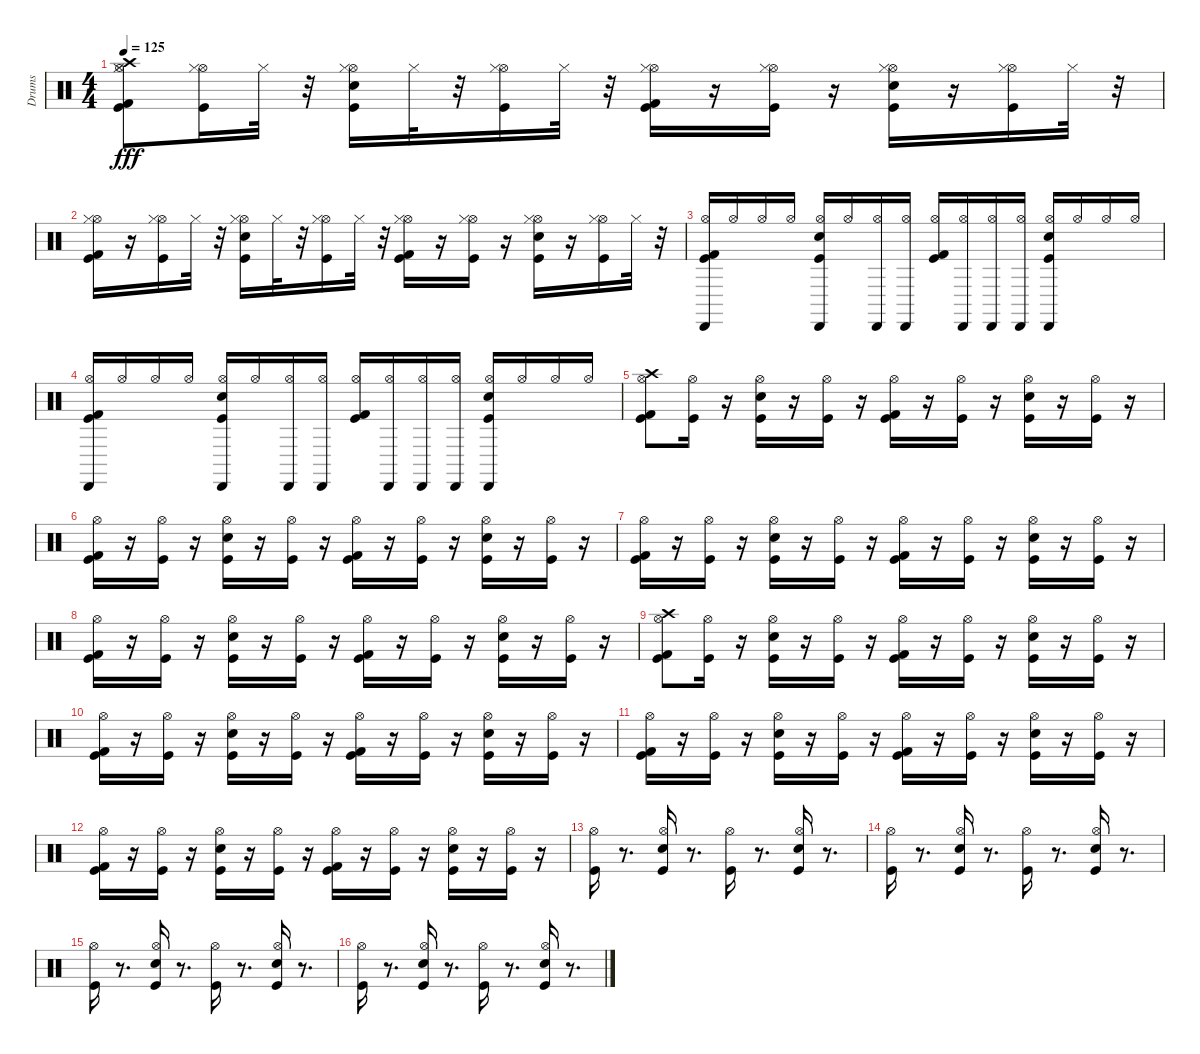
\track ("Drums" "Drums") {instrument percussion}
\staff {score}
\articulation defaults
\ts (4 4)
\tempo 125
\clef neutral
\ks c
("Kick (hit)" "Kick (hit) 2" "Hi-Hat (open)" "Crash high (hit)" "Hi-Hat (closed)").8{dy fff} ("Kick (hit)" "Hi-Hat (open)" "Hi-Hat (closed)").16 "Hi-Hat (closed)".32 r.32 ("Kick (hit)" "Snare (hit) 2" "Hi-Hat (open)" "Hi-Hat (closed)").16 "Hi-Hat (closed)".32 r.32 ("Kick (hit)" "Hi-Hat (open)" "Hi-Hat (closed)").16 "Hi-Hat (closed)".32 r.32 ("Kick (hit)" "Kick (hit) 2" "Hi-Hat (open)" "Hi-Hat (closed)").16 r.16 ("Kick (hit)" "Hi-Hat (open)" "Hi-Hat (closed)").16 r.16 ("Kick (hit)" "Snare (hit) 2" "Hi-Hat (open)" "Hi-Hat (closed)").16 r.16 ("Kick (hit)" "Hi-Hat (open)" "Hi-Hat (closed)").16 "Hi-Hat (closed)".32 r.32 |
("Kick (hit)" "Kick (hit) 2" "Hi-Hat (open)" "Hi-Hat (closed)").16 r.16 ("Kick (hit)" "Hi-Hat (open)" "Hi-Hat (closed)").16 "Hi-Hat (closed)".32 r.32 ("Kick (hit)" "Snare (hit) 2" "Hi-Hat (open)" "Hi-Hat (closed)").16 "Hi-Hat (closed)".32 r.32 ("Kick (hit)" "Hi-Hat (open)" "Hi-Hat (closed)").16 "Hi-Hat (closed)".32 r.32 ("Kick (hit)" "Kick (hit) 2" "Hi-Hat (open)" "Hi-Hat (closed)").16 r.16 ("Kick (hit)" "Hi-Hat (open)" "Hi-Hat (closed)").16 r.16 ("Kick (hit)" "Snare (hit) 2" "Hi-Hat (open)" "Hi-Hat (closed)").16 r.16 ("Kick (hit)" "Hi-Hat (open)" "Hi-Hat (closed)").16 "Hi-Hat (closed)".32 r.32 |
("Kick (hit) 2" "Kick (hit)" "Cabasa (hit)" "Hi-Hat (open)").16 "Hi-Hat (open)".16 "Hi-Hat (open)".16 "Hi-Hat (open)".16 ("Kick (hit)" "Cabasa (hit)" "Snare (hit) 2" "Hi-Hat (open)").16 "Hi-Hat (open)".16 ("Cabasa (hit)" "Hi-Hat (open)").16 ("Cabasa (hit)" "Hi-Hat (open)").16 ("Kick (hit) 2" "Kick (hit)" "Hi-Hat (open)").16 ("Cabasa (hit)" "Hi-Hat (open)").16 ("Cabasa (hit)" "Hi-Hat (open)").16 ("Cabasa (hit)" "Hi-Hat (open)").16 ("Kick (hit)" "Cabasa (hit)" "Snare (hit) 2" "Hi-Hat (open)").16 "Hi-Hat (open)".16 "Hi-Hat (open)".16 "Hi-Hat (open)".16 |
("Kick (hit) 2" "Kick (hit)" "Cabasa (hit)" "Hi-Hat (open)").16 "Hi-Hat (open)".16 "Hi-Hat (open)".16 "Hi-Hat (open)".16 ("Kick (hit)" "Cabasa (hit)" "Snare (hit) 2" "Hi-Hat (open)").16 "Hi-Hat (open)".16 ("Cabasa (hit)" "Hi-Hat (open)").16 ("Cabasa (hit)" "Hi-Hat (open)").16 ("Kick (hit) 2" "Kick (hit)" "Hi-Hat (open)").16 ("Cabasa (hit)" "Hi-Hat (open)").16 ("Cabasa (hit)" "Hi-Hat (open)").16 ("Cabasa (hit)" "Hi-Hat (open)").16 ("Kick (hit)" "Cabasa (hit)" "Snare (hit) 2" "Hi-Hat (open)").16 "Hi-Hat (open)".16 "Hi-Hat (open)".16 "Hi-Hat (open)".16 |
("Kick (hit) 2" "Kick (hit)" "Hi-Hat (open)" "Crash high (hit)").8 ("Kick (hit)" "Hi-Hat (open)").16 r.16 ("Kick (hit)" "Snare (hit) 2" "Hi-Hat (open)").16 r.16 ("Kick (hit)" "Hi-Hat (open)").16 r.16 ("Kick (hit) 2" "Kick (hit)" "Hi-Hat (open)").16 r.16 ("Kick (hit)" "Hi-Hat (open)").16 r.16 ("Kick (hit)" "Snare (hit) 2" "Hi-Hat (open)").16 r.16 ("Kick (hit)" "Hi-Hat (open)").16 r.16 |
("Kick (hit) 2" "Kick (hit)" "Hi-Hat (open)").16 r.16 ("Kick (hit)" "Hi-Hat (open)").16 r.16 ("Kick (hit)" "Snare (hit) 2" "Hi-Hat (open)").16 r.16 ("Kick (hit)" "Hi-Hat (open)").16 r.16 ("Kick (hit) 2" "Kick (hit)" "Hi-Hat (open)").16 r.16 ("Kick (hit)" "Hi-Hat (open)").16 r.16 ("Kick (hit)" "Snare (hit) 2" "Hi-Hat (open)").16 r.16 ("Kick (hit)" "Hi-Hat (open)").16 r.16 |
("Kick (hit) 2" "Kick (hit)" "Hi-Hat (open)").16 r.16 ("Kick (hit)" "Hi-Hat (open)").16 r.16 ("Kick (hit)" "Snare (hit) 2" "Hi-Hat (open)").16 r.16 ("Kick (hit)" "Hi-Hat (open)").16 r.16 ("Kick (hit) 2" "Kick (hit)" "Hi-Hat (open)").16 r.16 ("Kick (hit)" "Hi-Hat (open)").16 r.16 ("Kick (hit)" "Snare (hit) 2" "Hi-Hat (open)").16 r.16 ("Kick (hit)" "Hi-Hat (open)").16 r.16 |
("Kick (hit) 2" "Kick (hit)" "Hi-Hat (open)").16 r.16 ("Kick (hit)" "Hi-Hat (open)").16 r.16 ("Kick (hit)" "Snare (hit) 2" "Hi-Hat (open)").16 r.16 ("Kick (hit)" "Hi-Hat (open)").16 r.16 ("Kick (hit) 2" "Kick (hit)" "Hi-Hat (open)").16 r.16 ("Kick (hit)" "Hi-Hat (open)").16 r.16 ("Kick (hit)" "Snare (hit) 2" "Hi-Hat (open)").16 r.16 ("Kick (hit)" "Hi-Hat (open)").16 r.16 |
("Kick (hit) 2" "Kick (hit)" "Hi-Hat (open)" "Crash high (hit)").8 ("Kick (hit)" "Hi-Hat (open)").16 r.16 ("Kick (hit)" "Snare (hit) 2" "Hi-Hat (open)").16 r.16 ("Kick (hit)" "Hi-Hat (open)").16 r.16 ("Kick (hit) 2" "Kick (hit)" "Hi-Hat (open)").16 r.16 ("Kick (hit)" "Hi-Hat (open)").16 r.16 ("Kick (hit)" "Snare (hit) 2" "Hi-Hat (open)").16 r.16 ("Kick (hit)" "Hi-Hat (open)").16 r.16 |
("Kick (hit) 2" "Kick (hit)" "Hi-Hat (open)").16 r.16 ("Kick (hit)" "Hi-Hat (open)").16 r.16 ("Kick (hit)" "Snare (hit) 2" "Hi-Hat (open)").16 r.16 ("Kick (hit)" "Hi-Hat (open)").16 r.16 ("Kick (hit) 2" "Kick (hit)" "Hi-Hat (open)").16 r.16 ("Kick (hit)" "Hi-Hat (open)").16 r.16 ("Kick (hit)" "Snare (hit) 2" "Hi-Hat (open)").16 r.16 ("Kick (hit)" "Hi-Hat (open)").16 r.16 |
("Kick (hit) 2" "Kick (hit)" "Hi-Hat (open)").16 r.16 ("Kick (hit)" "Hi-Hat (open)").16 r.16 ("Kick (hit)" "Snare (hit) 2" "Hi-Hat (open)").16 r.16 ("Kick (hit)" "Hi-Hat (open)").16 r.16 ("Kick (hit) 2" "Kick (hit)" "Hi-Hat (open)").16 r.16 ("Kick (hit)" "Hi-Hat (open)").16 r.16 ("Kick (hit)" "Snare (hit) 2" "Hi-Hat (open)").16 r.16 ("Kick (hit)" "Hi-Hat (open)").16 r.16 |
("Kick (hit) 2" "Kick (hit)" "Hi-Hat (open)").16 r.16 ("Kick (hit)" "Hi-Hat (open)").16 r.16 ("Kick (hit)" "Snare (hit) 2" "Hi-Hat (open)").16 r.16 ("Kick (hit)" "Hi-Hat (open)").16 r.16 ("Kick (hit) 2" "Kick (hit)" "Hi-Hat (open)").16 r.16 ("Kick (hit)" "Hi-Hat (open)").16 r.16 ("Kick (hit)" "Snare (hit) 2" "Hi-Hat (open)").16 r.16 ("Kick (hit)" "Hi-Hat (open)").16 r.16 |
("Kick (hit)" "Hi-Hat (open)").16 r.8{d} ("Kick (hit)" "Snare (hit) 2" "Hi-Hat (open)").16 r.8{d} ("Kick (hit)" "Hi-Hat (open)").16 r.8{d} ("Kick (hit)" "Snare (hit) 2" "Hi-Hat (open)").16 r.8{d} |
("Hi-Hat (open)" "Kick (hit)").16 r.8{d} ("Kick (hit)" "Snare (hit) 2" "Hi-Hat (open)").16 r.8{d} ("Kick (hit)" "Hi-Hat (open)").16 r.8{d} ("Kick (hit)" "Snare (hit) 2" "Hi-Hat (open)").16 r.8{d} |
("Hi-Hat (open)" "Kick (hit)").16 r.8{d} ("Kick (hit)" "Snare (hit) 2" "Hi-Hat (open)").16 r.8{d} ("Kick (hit)" "Hi-Hat (open)").16 r.8{d} ("Kick (hit)" "Snare (hit) 2" "Hi-Hat (open)").16 r.8{d} |
("Hi-Hat (open)" "Kick (hit)").16 r.8{d} ("Kick (hit)" "Snare (hit) 2" "Hi-Hat (open)").16 r.8{d} ("Kick (hit)" "Hi-Hat (open)").16 r.8{d} ("Kick (hit)" "Snare (hit) 2" "Hi-Hat (open)").16 r.8{d}
